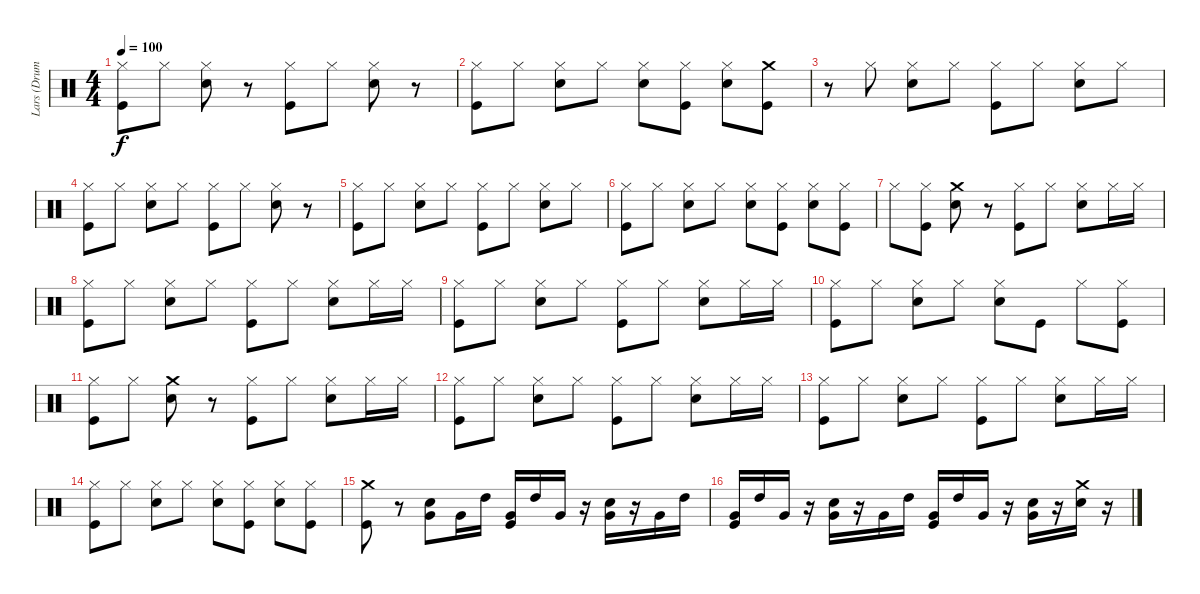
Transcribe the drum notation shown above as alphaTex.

\track ("Lars (Drums)" "Lars (Drum") {instrument percussion}
\staff {score}
\articulation defaults
\ts (4 4)
\tempo 100
\clef neutral
\ks c
("Kick (hit)" "Hi-Hat (closed)").8{dy f} "Hi-Hat (closed)".8 ("Hi-Hat (closed)" "Snare (hit) 2").8 r.8 ("Kick (hit)" "Hi-Hat (closed)").8 "Hi-Hat (closed)".8 ("Snare (hit) 2" "Hi-Hat (closed)").8 r.8 |
("Kick (hit)" "Hi-Hat (closed)").8 "Hi-Hat (closed)".8 ("Snare (hit) 2" "Hi-Hat (closed)").8 "Hi-Hat (closed)".8 ("Snare (hit) 2" "Hi-Hat (closed)").8 ("Kick (hit)" "Hi-Hat (closed)").8 ("Hi-Hat (closed)" "Snare (hit) 2").8 ("Crash medium (hit)" "Kick (hit)").8 |
r.8 "Hi-Hat (closed)".8 ("Snare (hit) 2" "Hi-Hat (closed)").8 "Hi-Hat (closed)".8 ("Kick (hit)" "Hi-Hat (closed)").8 "Hi-Hat (closed)".8 ("Snare (hit) 2" "Hi-Hat (closed)").8 "Hi-Hat (closed)".8 |
("Hi-Hat (closed)" "Kick (hit)").8 "Hi-Hat (closed)".8 ("Snare (hit) 2" "Hi-Hat (closed)").8 "Hi-Hat (closed)".8 ("Hi-Hat (closed)" "Kick (hit)").8 "Hi-Hat (closed)".8 ("Snare (hit) 2" "Hi-Hat (closed)").8 r.8 |
("Kick (hit)" "Hi-Hat (closed)").8 "Hi-Hat (closed)".8 ("Snare (hit) 2" "Hi-Hat (closed)").8 "Hi-Hat (closed)".8 ("Kick (hit)" "Hi-Hat (closed)").8 "Hi-Hat (closed)".8 ("Snare (hit) 2" "Hi-Hat (closed)").8 "Hi-Hat (closed)".8 |
("Hi-Hat (closed)" "Kick (hit)").8 "Hi-Hat (closed)".8 ("Snare (hit) 2" "Hi-Hat (closed)").8 "Hi-Hat (closed)".8 ("Snare (hit) 2" "Hi-Hat (closed)").8 ("Kick (hit)" "Hi-Hat (closed)").8 ("Snare (hit) 2" "Hi-Hat (closed)").8 ("Kick (hit)" "Hi-Hat (closed)").8 |
"Hi-Hat (closed)".8 ("Kick (hit)" "Hi-Hat (closed)").8 ("Crash medium (hit)" "Snare (hit) 2").8 r.8 ("Kick (hit)" "Hi-Hat (closed)").8 "Hi-Hat (closed)".8 ("Hi-Hat (closed)" "Snare (hit) 2").8 "Hi-Hat (closed)".16 "Hi-Hat (closed)".16 |
("Hi-Hat (closed)" "Kick (hit)").8 "Hi-Hat (closed)".8 ("Snare (hit) 2" "Hi-Hat (closed)").8 "Hi-Hat (closed)".8 ("Kick (hit)" "Hi-Hat (closed)").8 "Hi-Hat (closed)".8 ("Snare (hit) 2" "Hi-Hat (closed)").8 "Hi-Hat (closed)".16 "Hi-Hat (closed)".16 |
("Hi-Hat (closed)" "Kick (hit)").8 "Hi-Hat (closed)".8 ("Snare (hit) 2" "Hi-Hat (closed)").8 "Hi-Hat (closed)".8 ("Kick (hit)" "Hi-Hat (closed)").8 "Hi-Hat (closed)".8 ("Snare (hit) 2" "Hi-Hat (closed)").8 "Hi-Hat (closed)".16 "Hi-Hat (closed)".16 |
("Kick (hit)" "Hi-Hat (closed)").8 "Hi-Hat (closed)".8 ("Snare (hit) 2" "Hi-Hat (closed)").8 "Hi-Hat (closed)".8 ("Snare (hit) 2" "Hi-Hat (closed)").8 "Kick (hit)".8 "Hi-Hat (closed)".8 ("Kick (hit)" "Hi-Hat (closed)").8 |
("Hi-Hat (closed)" "Kick (hit)").8 "Hi-Hat (closed)".8 ("Crash medium (hit)" "Snare (hit) 2").8 r.8 ("Kick (hit)" "Hi-Hat (closed)").8 "Hi-Hat (closed)".8 ("Snare (hit) 2" "Hi-Hat (closed)").8 "Hi-Hat (closed)".16 "Hi-Hat (closed)".16 |
("Hi-Hat (closed)" "Kick (hit)").8 "Hi-Hat (closed)".8 ("Snare (hit) 2" "Hi-Hat (closed)").8 "Hi-Hat (closed)".8 ("Hi-Hat (closed)" "Kick (hit)").8 "Hi-Hat (closed)".8 ("Snare (hit) 2" "Hi-Hat (closed)").8 "Hi-Hat (closed)".16 "Hi-Hat (closed)".16 |
("Hi-Hat (closed)" "Kick (hit)").8 "Hi-Hat (closed)".8 ("Snare (hit) 2" "Hi-Hat (closed)").8 "Hi-Hat (closed)".8 ("Hi-Hat (closed)" "Kick (hit)").8 "Hi-Hat (closed)".8 ("Snare (hit) 2" "Hi-Hat (closed)").8 "Hi-Hat (closed)".16 "Hi-Hat (closed)".16 |
("Hi-Hat (closed)" "Kick (hit)").8 "Hi-Hat (closed)".8 ("Snare (hit) 2" "Hi-Hat (closed)").8 "Hi-Hat (closed)".8 ("Snare (hit) 2" "Hi-Hat (closed)").8 ("Kick (hit)" "Hi-Hat (closed)").8 ("Hi-Hat (closed)" "Snare (hit) 2").8 ("Kick (hit)" "Hi-Hat (closed)").8 |
("Crash medium (hit)" "Kick (hit)").8 r.8 ("Very Low Tom (hit)" "Snare (hit) 2").8 "Very Low Tom (hit)".16 "High Tom (hit)".16 ("Very Low Tom (hit)" "Kick (hit)").16 "High Tom (hit)".16 "Very Low Tom (hit)".16 r.16 ("Very Low Tom (hit)" "Snare (hit) 2").16 r.16 "Very Low Tom (hit)".16 "High Tom (hit)".16 |
("Very Low Tom (hit)" "Kick (hit)").16 "High Tom (hit)".16 "Very Low Tom (hit)".16 r.16 ("Very Low Tom (hit)" "Snare (hit) 2").16 r.16 "Very Low Tom (hit)".16 "High Tom (hit)".16 ("Very Low Tom (hit)" "Kick (hit)").16 "High Tom (hit)".16 "Very Low Tom (hit)".16 r.16 ("Very Low Tom (hit)" "Snare (hit) 2").16 r.16 ("Crash medium (hit)" "Snare (hit) 2").16 r.16
